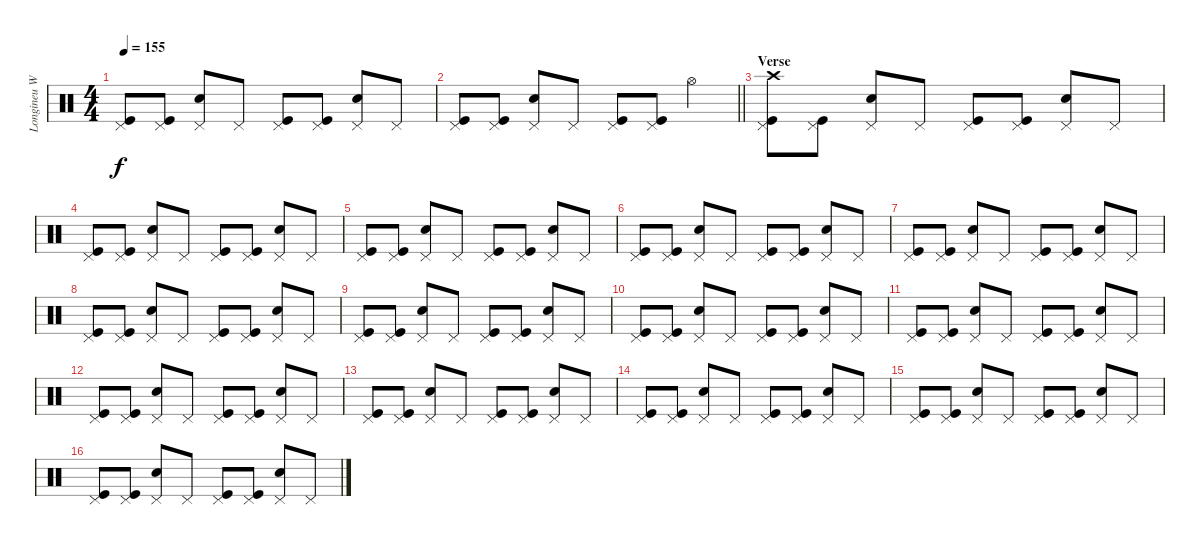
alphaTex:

\track ("Longineu W. Parsons III - Drums" "Longineu W") {instrument percussion}
\staff {score}
\articulation defaults
\ts (4 4)
\tempo 155
\clef neutral
\ks c
("Pedal Hi-Hat (hit)" "Kick (hit)").8{dy f} ("Pedal Hi-Hat (hit)" "Kick (hit)").8 ("Pedal Hi-Hat (hit)" "Snare (hit) 2").8 "Pedal Hi-Hat (hit)".8 ("Pedal Hi-Hat (hit)" "Kick (hit)").8 ("Pedal Hi-Hat (hit)" "Kick (hit)").8 ("Pedal Hi-Hat (hit)" "Snare (hit) 2").8 "Pedal Hi-Hat (hit)".8 |
\barLineRight lightlight
("Pedal Hi-Hat (hit)" "Kick (hit)").8 ("Pedal Hi-Hat (hit)" "Kick (hit)").8 ("Pedal Hi-Hat (hit)" "Snare (hit) 2").8 "Pedal Hi-Hat (hit)".8 ("Pedal Hi-Hat (hit)" "Kick (hit)").8 ("Pedal Hi-Hat (hit)" "Kick (hit)").8 "Hi-Hat (open)".4 |
\section ("" "Verse")
("Crash high (hit)" "Pedal Hi-Hat (hit)" "Kick (hit)").8 ("Pedal Hi-Hat (hit)" "Kick (hit)").8 ("Pedal Hi-Hat (hit)" "Snare (hit) 2").8 "Pedal Hi-Hat (hit)".8 ("Pedal Hi-Hat (hit)" "Kick (hit)").8 ("Pedal Hi-Hat (hit)" "Kick (hit)").8 ("Pedal Hi-Hat (hit)" "Snare (hit) 2").8 "Pedal Hi-Hat (hit)".8 |
("Pedal Hi-Hat (hit)" "Kick (hit)").8 ("Pedal Hi-Hat (hit)" "Kick (hit)").8 ("Pedal Hi-Hat (hit)" "Snare (hit) 2").8 "Pedal Hi-Hat (hit)".8 ("Pedal Hi-Hat (hit)" "Kick (hit)").8 ("Pedal Hi-Hat (hit)" "Kick (hit)").8 ("Pedal Hi-Hat (hit)" "Snare (hit) 2").8 "Pedal Hi-Hat (hit)".8 |
("Pedal Hi-Hat (hit)" "Kick (hit)").8 ("Pedal Hi-Hat (hit)" "Kick (hit)").8 ("Pedal Hi-Hat (hit)" "Snare (hit) 2").8 "Pedal Hi-Hat (hit)".8 ("Pedal Hi-Hat (hit)" "Kick (hit)").8 ("Pedal Hi-Hat (hit)" "Kick (hit)").8 ("Pedal Hi-Hat (hit)" "Snare (hit) 2").8 "Pedal Hi-Hat (hit)".8 |
("Pedal Hi-Hat (hit)" "Kick (hit)").8 ("Pedal Hi-Hat (hit)" "Kick (hit)").8 ("Pedal Hi-Hat (hit)" "Snare (hit) 2").8 "Pedal Hi-Hat (hit)".8 ("Pedal Hi-Hat (hit)" "Kick (hit)").8 ("Pedal Hi-Hat (hit)" "Kick (hit)").8 ("Pedal Hi-Hat (hit)" "Snare (hit) 2").8 "Pedal Hi-Hat (hit)".8 |
("Pedal Hi-Hat (hit)" "Kick (hit)").8 ("Pedal Hi-Hat (hit)" "Kick (hit)").8 ("Pedal Hi-Hat (hit)" "Snare (hit) 2").8 "Pedal Hi-Hat (hit)".8 ("Pedal Hi-Hat (hit)" "Kick (hit)").8 ("Pedal Hi-Hat (hit)" "Kick (hit)").8 ("Pedal Hi-Hat (hit)" "Snare (hit) 2").8 "Pedal Hi-Hat (hit)".8 |
("Pedal Hi-Hat (hit)" "Kick (hit)").8 ("Pedal Hi-Hat (hit)" "Kick (hit)").8 ("Pedal Hi-Hat (hit)" "Snare (hit) 2").8 "Pedal Hi-Hat (hit)".8 ("Pedal Hi-Hat (hit)" "Kick (hit)").8 ("Pedal Hi-Hat (hit)" "Kick (hit)").8 ("Pedal Hi-Hat (hit)" "Snare (hit) 2").8 "Pedal Hi-Hat (hit)".8 |
("Pedal Hi-Hat (hit)" "Kick (hit)").8 ("Pedal Hi-Hat (hit)" "Kick (hit)").8 ("Pedal Hi-Hat (hit)" "Snare (hit) 2").8 "Pedal Hi-Hat (hit)".8 ("Pedal Hi-Hat (hit)" "Kick (hit)").8 ("Pedal Hi-Hat (hit)" "Kick (hit)").8 ("Pedal Hi-Hat (hit)" "Snare (hit) 2").8 "Pedal Hi-Hat (hit)".8 |
("Pedal Hi-Hat (hit)" "Kick (hit)").8 ("Pedal Hi-Hat (hit)" "Kick (hit)").8 ("Pedal Hi-Hat (hit)" "Snare (hit) 2").8 "Pedal Hi-Hat (hit)".8 ("Pedal Hi-Hat (hit)" "Kick (hit)").8 ("Pedal Hi-Hat (hit)" "Kick (hit)").8 ("Pedal Hi-Hat (hit)" "Snare (hit) 2").8 "Pedal Hi-Hat (hit)".8 |
("Pedal Hi-Hat (hit)" "Kick (hit)").8 ("Pedal Hi-Hat (hit)" "Kick (hit)").8 ("Pedal Hi-Hat (hit)" "Snare (hit) 2").8 "Pedal Hi-Hat (hit)".8 ("Pedal Hi-Hat (hit)" "Kick (hit)").8 ("Pedal Hi-Hat (hit)" "Kick (hit)").8 ("Pedal Hi-Hat (hit)" "Snare (hit) 2").8 "Pedal Hi-Hat (hit)".8 |
("Pedal Hi-Hat (hit)" "Kick (hit)").8 ("Pedal Hi-Hat (hit)" "Kick (hit)").8 ("Pedal Hi-Hat (hit)" "Snare (hit) 2").8 "Pedal Hi-Hat (hit)".8 ("Pedal Hi-Hat (hit)" "Kick (hit)").8 ("Pedal Hi-Hat (hit)" "Kick (hit)").8 ("Pedal Hi-Hat (hit)" "Snare (hit) 2").8 "Pedal Hi-Hat (hit)".8 |
("Pedal Hi-Hat (hit)" "Kick (hit)").8 ("Pedal Hi-Hat (hit)" "Kick (hit)").8 ("Pedal Hi-Hat (hit)" "Snare (hit) 2").8 "Pedal Hi-Hat (hit)".8 ("Pedal Hi-Hat (hit)" "Kick (hit)").8 ("Pedal Hi-Hat (hit)" "Kick (hit)").8 ("Pedal Hi-Hat (hit)" "Snare (hit) 2").8 "Pedal Hi-Hat (hit)".8 |
("Pedal Hi-Hat (hit)" "Kick (hit)").8 ("Pedal Hi-Hat (hit)" "Kick (hit)").8 ("Pedal Hi-Hat (hit)" "Snare (hit) 2").8 "Pedal Hi-Hat (hit)".8 ("Pedal Hi-Hat (hit)" "Kick (hit)").8 ("Pedal Hi-Hat (hit)" "Kick (hit)").8 ("Pedal Hi-Hat (hit)" "Snare (hit) 2").8 "Pedal Hi-Hat (hit)".8 |
("Pedal Hi-Hat (hit)" "Kick (hit)").8 ("Pedal Hi-Hat (hit)" "Kick (hit)").8 ("Pedal Hi-Hat (hit)" "Snare (hit) 2").8 "Pedal Hi-Hat (hit)".8 ("Pedal Hi-Hat (hit)" "Kick (hit)").8 ("Pedal Hi-Hat (hit)" "Kick (hit)").8 ("Pedal Hi-Hat (hit)" "Snare (hit) 2").8 "Pedal Hi-Hat (hit)".8 |
("Pedal Hi-Hat (hit)" "Kick (hit)").8 ("Pedal Hi-Hat (hit)" "Kick (hit)").8 ("Pedal Hi-Hat (hit)" "Snare (hit) 2").8 "Pedal Hi-Hat (hit)".8 ("Pedal Hi-Hat (hit)" "Kick (hit)").8 ("Pedal Hi-Hat (hit)" "Kick (hit)").8 ("Pedal Hi-Hat (hit)" "Snare (hit) 2").8 "Pedal Hi-Hat (hit)".8
